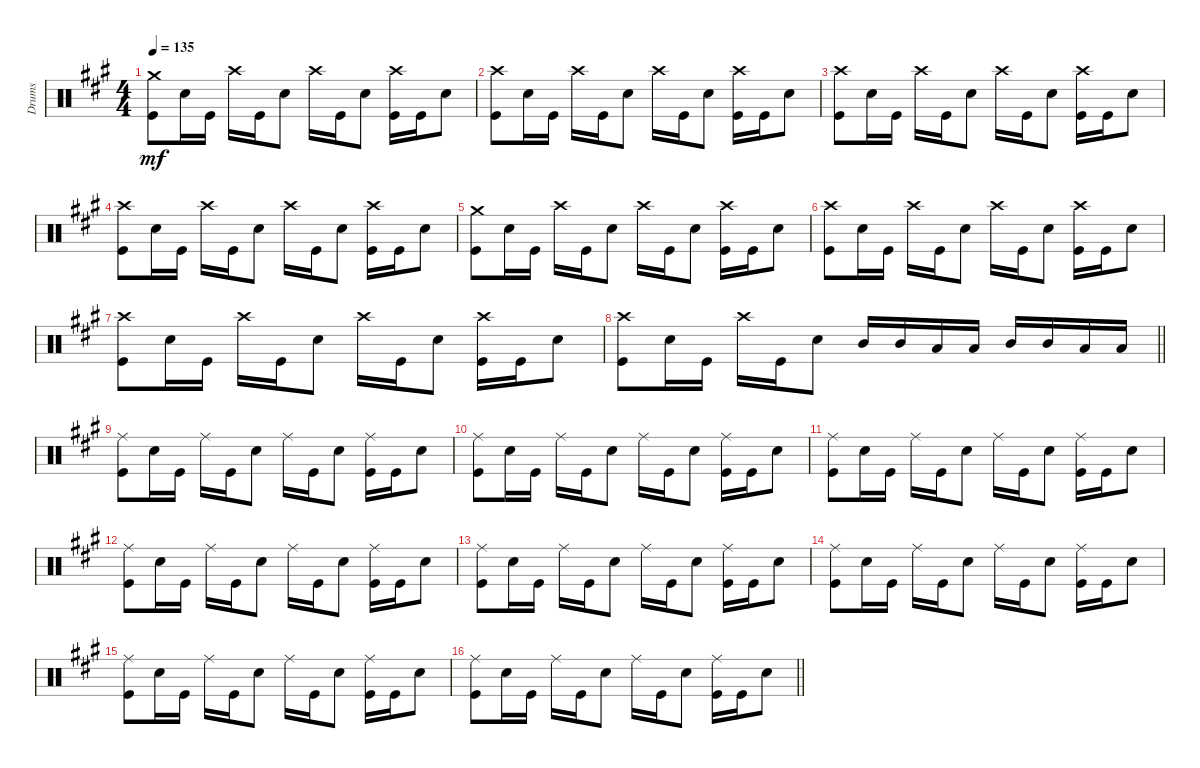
\track ("Drums" "Drums") {instrument percussion}
\staff {score}
\articulation defaults
\ts (4 4)
\tempo 135
\clef neutral
\ks a
("Kick (hit)" "Crash medium (hit)").8{dy mf} "Snare (hit) 2".16 "Kick (hit)".16 "Crash high (hit)".16 "Kick (hit)".16 "Snare (hit) 2".8 "Crash high (hit)".16 "Kick (hit)".16 "Snare (hit) 2".8 ("Kick (hit)" "Crash high (hit)").16 "Kick (hit)".16 "Snare (hit) 2".8 |
("Kick (hit)" "Crash high (hit)").8 "Snare (hit) 2".16 "Kick (hit)".16 "Crash high (hit)".16 "Kick (hit)".16 "Snare (hit) 2".8 "Crash high (hit)".16 "Kick (hit)".16 "Snare (hit) 2".8 ("Kick (hit)" "Crash high (hit)").16 "Kick (hit)".16 "Snare (hit) 2".8 |
("Kick (hit)" "Crash high (hit)").8 "Snare (hit) 2".16 "Kick (hit)".16 "Crash high (hit)".16 "Kick (hit)".16 "Snare (hit) 2".8 "Crash high (hit)".16 "Kick (hit)".16 "Snare (hit) 2".8 ("Kick (hit)" "Crash high (hit)").16 "Kick (hit)".16 "Snare (hit) 2".8 |
("Kick (hit)" "Crash high (hit)").8 "Snare (hit) 2".16 "Kick (hit)".16 "Crash high (hit)".16 "Kick (hit)".16 "Snare (hit) 2".8 "Crash high (hit)".16 "Kick (hit)".16 "Snare (hit) 2".8 ("Kick (hit)" "Crash high (hit)").16 "Kick (hit)".16 "Snare (hit) 2".8 |
("Kick (hit)" "Crash medium (hit)").8 "Snare (hit) 2".16 "Kick (hit)".16 "Crash high (hit)".16 "Kick (hit)".16 "Snare (hit) 2".8 "Crash high (hit)".16 "Kick (hit)".16 "Snare (hit) 2".8 ("Kick (hit)" "Crash high (hit)").16 "Kick (hit)".16 "Snare (hit) 2".8 |
("Kick (hit)" "Crash high (hit)").8 "Snare (hit) 2".16 "Kick (hit)".16 "Crash high (hit)".16 "Kick (hit)".16 "Snare (hit) 2".8 "Crash high (hit)".16 "Kick (hit)".16 "Snare (hit) 2".8 ("Kick (hit)" "Crash high (hit)").16 "Kick (hit)".16 "Snare (hit) 2".8 |
("Kick (hit)" "Crash high (hit)").8 "Snare (hit) 2".16 "Kick (hit)".16 "Crash high (hit)".16 "Kick (hit)".16 "Snare (hit) 2".8 "Crash high (hit)".16 "Kick (hit)".16 "Snare (hit) 2".8 ("Kick (hit)" "Crash high (hit)").16 "Kick (hit)".16 "Snare (hit) 2".8 |
\barLineRight lightlight
("Kick (hit)" "Crash high (hit)").8 "Snare (hit) 2".16 "Kick (hit)".16 "Crash high (hit)".16 "Kick (hit)".16 "Snare (hit) 2".8 "Mid Tom (hit)".16 "Mid Tom (hit)".16 "Low Tom (hit)".16 "Low Tom (hit)".16 "Mid Tom (hit)".16 "Mid Tom (hit)".16 "Low Tom (hit)".16 "Low Tom (hit)".16 |
("Kick (hit)" "Ride (middle)").8 "Snare (hit) 2".16 "Kick (hit)".16 "Ride (middle)".16 "Kick (hit)".16 "Snare (hit) 2".8 "Ride (middle)".16 "Kick (hit)".16 "Snare (hit) 2".8 ("Kick (hit)" "Ride (middle)").16 "Kick (hit)".16 "Snare (hit) 2".8 |
("Kick (hit)" "Ride (middle)").8 "Snare (hit) 2".16 "Kick (hit)".16 "Ride (middle)".16 "Kick (hit)".16 "Snare (hit) 2".8 "Ride (middle)".16 "Kick (hit)".16 "Snare (hit) 2".8 ("Kick (hit)" "Ride (middle)").16 "Kick (hit)".16 "Snare (hit) 2".8 |
("Kick (hit)" "Ride (middle)").8 "Snare (hit) 2".16 "Kick (hit)".16 "Ride (middle)".16 "Kick (hit)".16 "Snare (hit) 2".8 "Ride (middle)".16 "Kick (hit)".16 "Snare (hit) 2".8 ("Kick (hit)" "Ride (middle)").16 "Kick (hit)".16 "Snare (hit) 2".8 |
("Kick (hit)" "Ride (middle)").8 "Snare (hit) 2".16 "Kick (hit)".16 "Ride (middle)".16 "Kick (hit)".16 "Snare (hit) 2".8 "Ride (middle)".16 "Kick (hit)".16 "Snare (hit) 2".8 ("Kick (hit)" "Ride (middle)").16 "Kick (hit)".16 "Snare (hit) 2".8 |
("Kick (hit)" "Ride (middle)").8 "Snare (hit) 2".16 "Kick (hit)".16 "Ride (middle)".16 "Kick (hit)".16 "Snare (hit) 2".8 "Ride (middle)".16 "Kick (hit)".16 "Snare (hit) 2".8 ("Kick (hit)" "Ride (middle)").16 "Kick (hit)".16 "Snare (hit) 2".8 |
("Kick (hit)" "Ride (middle)").8 "Snare (hit) 2".16 "Kick (hit)".16 "Ride (middle)".16 "Kick (hit)".16 "Snare (hit) 2".8 "Ride (middle)".16 "Kick (hit)".16 "Snare (hit) 2".8 ("Kick (hit)" "Ride (middle)").16 "Kick (hit)".16 "Snare (hit) 2".8 |
("Kick (hit)" "Ride (middle)").8 "Snare (hit) 2".16 "Kick (hit)".16 "Ride (middle)".16 "Kick (hit)".16 "Snare (hit) 2".8 "Ride (middle)".16 "Kick (hit)".16 "Snare (hit) 2".8 ("Kick (hit)" "Ride (middle)").16 "Kick (hit)".16 "Snare (hit) 2".8 |
\barLineRight lightlight
("Kick (hit)" "Ride (middle)").8 "Snare (hit) 2".16 "Kick (hit)".16 "Ride (middle)".16 "Kick (hit)".16 "Snare (hit) 2".8 "Ride (middle)".16 "Kick (hit)".16 "Snare (hit) 2".8 ("Kick (hit)" "Ride (middle)").16 "Kick (hit)".16 "Snare (hit) 2".8
